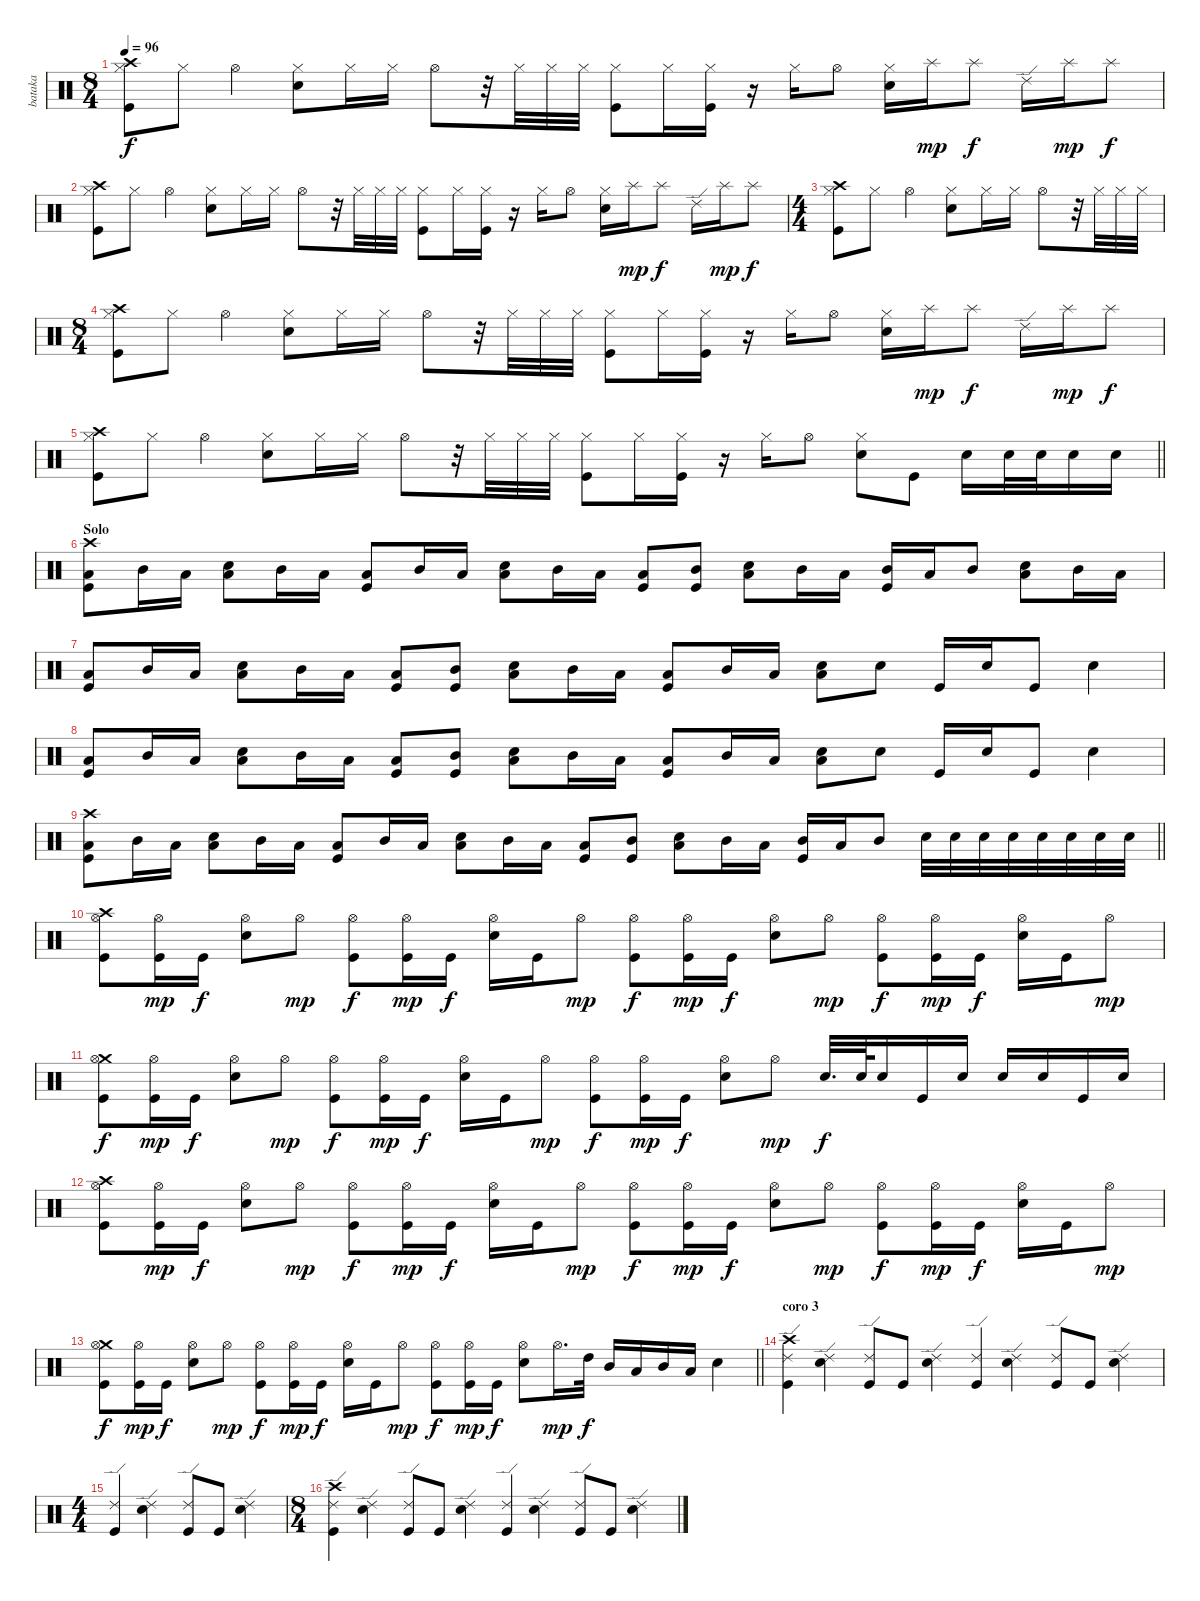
\track ("bataka" "bataka") {instrument percussion}
\staff {score}
\articulation defaults
\ts (8 4)
\tempo 96
\clef neutral
\ks c
("Crash high (hit)" "Hi-Hat (closed)" "Kick (hit)").8{dy f} "Hi-Hat (closed)".8 "Hi-Hat (open)".4 ("Hi-Hat (closed)" "Snare (hit) 2").8 "Hi-Hat (closed)".16 "Hi-Hat (closed)".16 "Hi-Hat (open)".8 r.32 "Hi-Hat (closed)".32 "Hi-Hat (closed)".32 "Hi-Hat (closed)".32 ("Hi-Hat (closed)" "Kick (hit)").8 "Hi-Hat (closed)".16 ("Hi-Hat (closed)" "Kick (hit)").16 r.16 "Hi-Hat (closed)".16 "Hi-Hat (open)".8 ("Hi-Hat (closed)" "Snare (hit) 2").16 "Splash (hit)".16{dy mp} "Splash (hit)".8{dy f} "Ride (edge) 2".16 "Splash (hit)".16{dy mp} "Splash (hit)".8{dy f} |
("Crash high (hit)" "Hi-Hat (closed)" "Kick (hit)").8 "Hi-Hat (closed)".8 "Hi-Hat (open)".4 ("Hi-Hat (closed)" "Snare (hit) 2").8 "Hi-Hat (closed)".16 "Hi-Hat (closed)".16 "Hi-Hat (open)".8 r.32 "Hi-Hat (closed)".32 "Hi-Hat (closed)".32 "Hi-Hat (closed)".32 ("Hi-Hat (closed)" "Kick (hit)").8 "Hi-Hat (closed)".16 ("Hi-Hat (closed)" "Kick (hit)").16 r.16 "Hi-Hat (closed)".16 "Hi-Hat (open)".8 ("Hi-Hat (closed)" "Snare (hit) 2").16 "Splash (hit)".16{dy mp} "Splash (hit)".8{dy f} "Ride (edge) 2".16 "Splash (hit)".16{dy mp} "Splash (hit)".8{dy f} |
\ts (4 4)
("Crash high (hit)" "Hi-Hat (closed)" "Kick (hit)").8 "Hi-Hat (closed)".8 "Hi-Hat (open)".4 ("Hi-Hat (closed)" "Snare (hit) 2").8 "Hi-Hat (closed)".16 "Hi-Hat (closed)".16 "Hi-Hat (open)".8 r.32 "Hi-Hat (closed)".32 "Hi-Hat (closed)".32 "Hi-Hat (closed)".32 |
\ts (8 4)
("Crash high (hit)" "Hi-Hat (closed)" "Kick (hit)").8 "Hi-Hat (closed)".8 "Hi-Hat (open)".4 ("Hi-Hat (closed)" "Snare (hit) 2").8 "Hi-Hat (closed)".16 "Hi-Hat (closed)".16 "Hi-Hat (open)".8 r.32 "Hi-Hat (closed)".32 "Hi-Hat (closed)".32 "Hi-Hat (closed)".32 ("Hi-Hat (closed)" "Kick (hit)").8 "Hi-Hat (closed)".16 ("Hi-Hat (closed)" "Kick (hit)").16 r.16 "Hi-Hat (closed)".16 "Hi-Hat (open)".8 ("Hi-Hat (closed)" "Snare (hit) 2").16 "Splash (hit)".16{dy mp} "Splash (hit)".8{dy f} "Ride (edge) 2".16 "Splash (hit)".16{dy mp} "Splash (hit)".8{dy f} |
\barLineRight lightlight
("Crash high (hit)" "Hi-Hat (closed)" "Kick (hit)").8 "Hi-Hat (closed)".8 "Hi-Hat (open)".4 ("Hi-Hat (closed)" "Snare (hit) 2").8 "Hi-Hat (closed)".16 "Hi-Hat (closed)".16 "Hi-Hat (open)".8 r.32 "Hi-Hat (closed)".32 "Hi-Hat (closed)".32 "Hi-Hat (closed)".32 ("Hi-Hat (closed)" "Kick (hit)").8 "Hi-Hat (closed)".16 ("Hi-Hat (closed)" "Kick (hit)").16 r.16 "Hi-Hat (closed)".16 "Hi-Hat (open)".8 ("Hi-Hat (closed)" "Snare (hit) 2").8 "Kick (hit)".8 "Snare (hit) 2".16 "Snare (hit) 2".32 "Snare (hit) 2".32 "Snare (hit) 2".16 "Snare (hit) 2".16 |
\section ("" "Solo")
("Crash high (hit)" "Low Tom (hit)" "Kick (hit)").8 "Mid Tom (hit)".16 "Low Tom (hit)".16 ("Low Tom (hit)" "Snare (hit) 2").8 "Mid Tom (hit)".16 "Low Tom (hit)".16 ("Low Tom (hit)" "Kick (hit)").8 "Mid Tom (hit)".16 "Low Tom (hit)".16 ("Low Tom (hit)" "Snare (hit) 2").8 "Mid Tom (hit)".16 "Low Tom (hit)".16 ("Low Tom (hit)" "Kick (hit)").8 ("Mid Tom (hit)" "Kick (hit)").8 ("Low Tom (hit)" "Snare (hit) 2").8 "Mid Tom (hit)".16 "Low Tom (hit)".16 ("Mid Tom (hit)" "Kick (hit)").16 "Low Tom (hit)".16 "Mid Tom (hit)".8 ("Low Tom (hit)" "Snare (hit) 2").8 "Mid Tom (hit)".16 "Low Tom (hit)".16 |
("Low Tom (hit)" "Kick (hit)").8 "Mid Tom (hit)".16 "Low Tom (hit)".16 ("Low Tom (hit)" "Snare (hit) 2").8 "Mid Tom (hit)".16 "Low Tom (hit)".16 ("Low Tom (hit)" "Kick (hit)").8 ("Mid Tom (hit)" "Kick (hit)").8 ("Low Tom (hit)" "Snare (hit) 2").8 "Mid Tom (hit)".16 "Low Tom (hit)".16 ("Low Tom (hit)" "Kick (hit)").8 "Mid Tom (hit)".16 "Low Tom (hit)".16 ("Low Tom (hit)" "Snare (hit) 2").8 "Snare (hit) 2".8 "Kick (hit)".16 "Snare (hit) 2".16 "Kick (hit)".8 "Snare (hit) 2".4 |
("Low Tom (hit)" "Kick (hit)").8 "Mid Tom (hit)".16 "Low Tom (hit)".16 ("Low Tom (hit)" "Snare (hit) 2").8 "Mid Tom (hit)".16 "Low Tom (hit)".16 ("Low Tom (hit)" "Kick (hit)").8 ("Mid Tom (hit)" "Kick (hit)").8 ("Low Tom (hit)" "Snare (hit) 2").8 "Mid Tom (hit)".16 "Low Tom (hit)".16 ("Low Tom (hit)" "Kick (hit)").8 "Mid Tom (hit)".16 "Low Tom (hit)".16 ("Low Tom (hit)" "Snare (hit) 2").8 "Snare (hit) 2".8 "Kick (hit)".16 "Snare (hit) 2".16 "Kick (hit)".8 "Snare (hit) 2".4 |
\barLineRight lightlight
("Crash high (hit)" "Low Tom (hit)" "Kick (hit)").8 "Mid Tom (hit)".16 "Low Tom (hit)".16 ("Low Tom (hit)" "Snare (hit) 2").8 "Mid Tom (hit)".16 "Low Tom (hit)".16 ("Low Tom (hit)" "Kick (hit)").8 "Mid Tom (hit)".16 "Low Tom (hit)".16 ("Low Tom (hit)" "Snare (hit) 2").8 "Mid Tom (hit)".16 "Low Tom (hit)".16 ("Low Tom (hit)" "Kick (hit)").8 ("Mid Tom (hit)" "Kick (hit)").8 ("Low Tom (hit)" "Snare (hit) 2").8 "Mid Tom (hit)".16 "Low Tom (hit)".16 ("Mid Tom (hit)" "Kick (hit)").16 "Low Tom (hit)".16 "Mid Tom (hit)".8 "Snare (hit) 2".32 "Snare (hit) 2".32 "Snare (hit) 2".32 "Snare (hit) 2".32 "Snare (hit) 2".32 "Snare (hit) 2".32 "Snare (hit) 2".32 "Snare (hit) 2".32 |
("Crash high (hit)" "Hi-Hat (open)" "Kick (hit)").8 ("Hi-Hat (open)" "Kick (hit)").16{dy mp} "Kick (hit)".16{dy f} ("Hi-Hat (open)" "Snare (hit) 2").8 "Hi-Hat (open)".8{dy mp} ("Hi-Hat (open)" "Kick (hit)").8{dy f} ("Hi-Hat (open)" "Kick (hit)").16{dy mp} "Kick (hit)".16{dy f} ("Hi-Hat (open)" "Snare (hit) 2").16 "Kick (hit)".16 "Hi-Hat (open)".8{dy mp} ("Hi-Hat (open)" "Kick (hit)").8{dy f} ("Hi-Hat (open)" "Kick (hit)").16{dy mp} "Kick (hit)".16{dy f} ("Hi-Hat (open)" "Snare (hit) 2").8 "Hi-Hat (open)".8{dy mp} ("Hi-Hat (open)" "Kick (hit)").8{dy f} ("Hi-Hat (open)" "Kick (hit)").16{dy mp} "Kick (hit)".16{dy f} ("Hi-Hat (open)" "Snare (hit) 2").16 "Kick (hit)".16 "Hi-Hat (open)".8{dy mp} |
("Crash medium (hit)" "Hi-Hat (open)" "Kick (hit)").8{dy f} ("Hi-Hat (open)" "Kick (hit)").16{dy mp} "Kick (hit)".16{dy f} ("Hi-Hat (open)" "Snare (hit) 2").8 "Hi-Hat (open)".8{dy mp} ("Hi-Hat (open)" "Kick (hit)").8{dy f} ("Hi-Hat (open)" "Kick (hit)").16{dy mp} "Kick (hit)".16{dy f} ("Hi-Hat (open)" "Snare (hit) 2").16 "Kick (hit)".16 "Hi-Hat (open)".8{dy mp} ("Hi-Hat (open)" "Kick (hit)").8{dy f} ("Hi-Hat (open)" "Kick (hit)").16{dy mp} "Kick (hit)".16{dy f} ("Hi-Hat (open)" "Snare (hit) 2").8 "Hi-Hat (open)".8{dy mp} "Snare (hit) 2".32{d dy f} "Snare (hit) 2".64 "Snare (hit) 2".16 "Kick (hit)".16 "Snare (hit) 2".16 "Snare (hit) 2".16 "Snare (hit) 2".16 "Kick (hit)".16 "Snare (hit) 2".16 |
("Crash high (hit)" "Hi-Hat (open)" "Kick (hit)").8 ("Hi-Hat (open)" "Kick (hit)").16{dy mp} "Kick (hit)".16{dy f} ("Hi-Hat (open)" "Snare (hit) 2").8 "Hi-Hat (open)".8{dy mp} ("Hi-Hat (open)" "Kick (hit)").8{dy f} ("Hi-Hat (open)" "Kick (hit)").16{dy mp} "Kick (hit)".16{dy f} ("Hi-Hat (open)" "Snare (hit) 2").16 "Kick (hit)".16 "Hi-Hat (open)".8{dy mp} ("Hi-Hat (open)" "Kick (hit)").8{dy f} ("Hi-Hat (open)" "Kick (hit)").16{dy mp} "Kick (hit)".16{dy f} ("Hi-Hat (open)" "Snare (hit) 2").8 "Hi-Hat (open)".8{dy mp} ("Hi-Hat (open)" "Kick (hit)").8{dy f} ("Hi-Hat (open)" "Kick (hit)").16{dy mp} "Kick (hit)".16{dy f} ("Hi-Hat (open)" "Snare (hit) 2").16 "Kick (hit)".16 "Hi-Hat (open)".8{dy mp} |
\barLineRight lightlight
("Crash medium (hit)" "Hi-Hat (open)" "Kick (hit)").8{dy f} ("Hi-Hat (open)" "Kick (hit)").16{dy mp} "Kick (hit)".16{dy f} ("Hi-Hat (open)" "Snare (hit) 2").8 "Hi-Hat (open)".8{dy mp} ("Hi-Hat (open)" "Kick (hit)").8{dy f} ("Hi-Hat (open)" "Kick (hit)").16{dy mp} "Kick (hit)".16{dy f} ("Hi-Hat (open)" "Snare (hit) 2").16 "Kick (hit)".16 "Hi-Hat (open)".8{dy mp} ("Hi-Hat (open)" "Kick (hit)").8{dy f} ("Hi-Hat (open)" "Kick (hit)").16{dy mp} "Kick (hit)".16{dy f} ("Hi-Hat (open)" "Snare (hit) 2").8 "Hi-Hat (open)".16{d dy mp} "High Tom (hit)".32{dy f} "Mid Tom (hit)".16 "Low Tom (hit)".16 "Mid Tom (hit)".16 "Low Tom (hit)".16 "Snare (hit) 2".4 |
\section ("" "coro 3")
("Crash high (hit)" "Ride (edge) 2" "Kick (hit)").4 ("Ride (edge) 2" "Snare (hit) 2").4 ("Ride (edge) 2" "Kick (hit)").8 "Kick (hit)".8 ("Ride (edge) 2" "Snare (hit) 2").4 ("Ride (edge) 2" "Kick (hit)").4 ("Ride (edge) 2" "Snare (hit) 2").4 ("Ride (edge) 2" "Kick (hit)").8 "Kick (hit)".8 ("Ride (edge) 2" "Snare (hit) 2").4 |
\ts (4 4)
("Ride (edge) 2" "Kick (hit)").4 ("Ride (edge) 2" "Snare (hit) 2").4 ("Ride (edge) 2" "Kick (hit)").8 "Kick (hit)".8 ("Ride (edge) 2" "Snare (hit) 2").4 |
\ts (8 4)
("Crash high (hit)" "Ride (edge) 2" "Kick (hit)").4 ("Ride (edge) 2" "Snare (hit) 2").4 ("Ride (edge) 2" "Kick (hit)").8 "Kick (hit)".8 ("Ride (edge) 2" "Snare (hit) 2").4 ("Ride (edge) 2" "Kick (hit)").4 ("Ride (edge) 2" "Snare (hit) 2").4 ("Ride (edge) 2" "Kick (hit)").8 "Kick (hit)".8 ("Ride (edge) 2" "Snare (hit) 2").4
